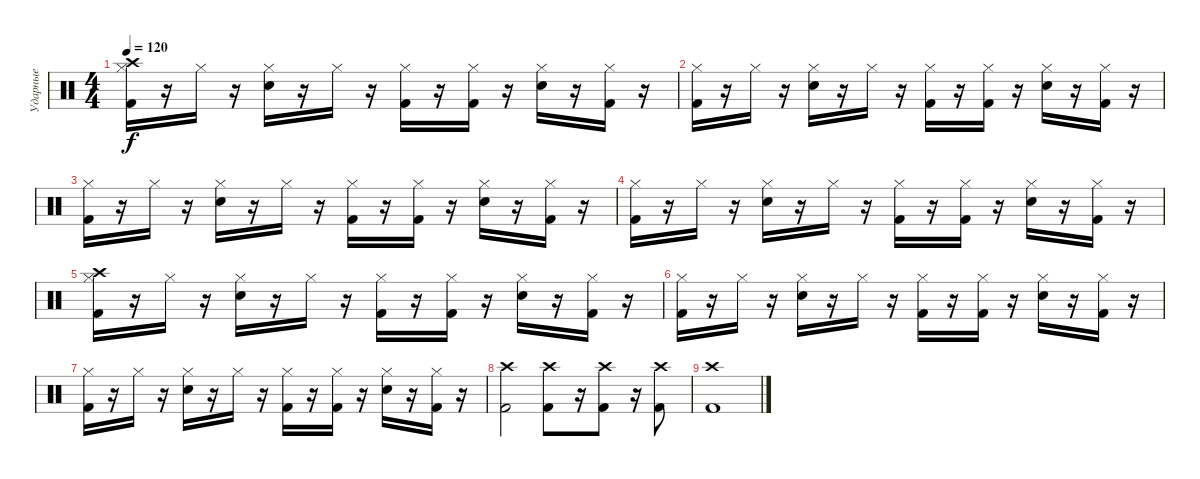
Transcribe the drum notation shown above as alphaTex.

\track ("Ударные" "Ударные") {instrument percussion}
\staff {score}
\articulation defaults
\ts (4 4)
\tempo 120
\clef neutral
\ks c
("Hi-Hat (closed)" "Kick (hit) 2" "Crash high (hit)").16{dy f} r.16 "Hi-Hat (closed)".16 r.16 ("Hi-Hat (closed)" "Snare (hit) 2").16 r.16 "Hi-Hat (closed)".16 r.16 ("Hi-Hat (closed)" "Kick (hit) 2").16 r.16 ("Hi-Hat (closed)" "Kick (hit) 2").16 r.16 ("Hi-Hat (closed)" "Snare (hit) 2").16 r.16 ("Hi-Hat (closed)" "Kick (hit) 2").16 r.16 |
("Hi-Hat (closed)" "Kick (hit) 2").16 r.16 "Hi-Hat (closed)".16 r.16 ("Hi-Hat (closed)" "Snare (hit) 2").16 r.16 "Hi-Hat (closed)".16 r.16 ("Hi-Hat (closed)" "Kick (hit) 2").16 r.16 ("Hi-Hat (closed)" "Kick (hit) 2").16 r.16 ("Hi-Hat (closed)" "Snare (hit) 2").16 r.16 ("Hi-Hat (closed)" "Kick (hit) 2").16 r.16 |
("Hi-Hat (closed)" "Kick (hit) 2").16 r.16 "Hi-Hat (closed)".16 r.16 ("Hi-Hat (closed)" "Snare (hit) 2").16 r.16 "Hi-Hat (closed)".16 r.16 ("Hi-Hat (closed)" "Kick (hit) 2").16 r.16 ("Hi-Hat (closed)" "Kick (hit) 2").16 r.16 ("Hi-Hat (closed)" "Snare (hit) 2").16 r.16 ("Hi-Hat (closed)" "Kick (hit) 2").16 r.16 |
("Hi-Hat (closed)" "Kick (hit) 2").16 r.16 "Hi-Hat (closed)".16 r.16 ("Hi-Hat (closed)" "Snare (hit) 2").16 r.16 "Hi-Hat (closed)".16 r.16 ("Hi-Hat (closed)" "Kick (hit) 2").16 r.16 ("Hi-Hat (closed)" "Kick (hit) 2").16 r.16 ("Hi-Hat (closed)" "Snare (hit) 2").16 r.16 ("Hi-Hat (closed)" "Kick (hit) 2").16 r.16 |
("Hi-Hat (closed)" "Kick (hit) 2" "Crash high (hit)").16 r.16 "Hi-Hat (closed)".16 r.16 ("Hi-Hat (closed)" "Snare (hit) 2").16 r.16 "Hi-Hat (closed)".16 r.16 ("Hi-Hat (closed)" "Kick (hit) 2").16 r.16 ("Hi-Hat (closed)" "Kick (hit) 2").16 r.16 ("Hi-Hat (closed)" "Snare (hit) 2").16 r.16 ("Hi-Hat (closed)" "Kick (hit) 2").16 r.16 |
("Hi-Hat (closed)" "Kick (hit) 2").16 r.16 "Hi-Hat (closed)".16 r.16 ("Hi-Hat (closed)" "Snare (hit) 2").16 r.16 "Hi-Hat (closed)".16 r.16 ("Hi-Hat (closed)" "Kick (hit) 2").16 r.16 ("Hi-Hat (closed)" "Kick (hit) 2").16 r.16 ("Hi-Hat (closed)" "Snare (hit) 2").16 r.16 ("Hi-Hat (closed)" "Kick (hit) 2").16 r.16 |
("Hi-Hat (closed)" "Kick (hit) 2").16 r.16 "Hi-Hat (closed)".16 r.16 ("Hi-Hat (closed)" "Snare (hit) 2").16 r.16 "Hi-Hat (closed)".16 r.16 ("Hi-Hat (closed)" "Kick (hit) 2").16 r.16 ("Hi-Hat (closed)" "Kick (hit) 2").16 r.16 ("Hi-Hat (closed)" "Snare (hit) 2").16 r.16 ("Hi-Hat (closed)" "Kick (hit) 2").16 r.16 |
("Crash high (hit)" "Kick (hit) 2").2 ("Crash high (hit)" "Kick (hit) 2").8 r.16 ("Crash high (hit)" "Kick (hit) 2").8 r.16 ("Crash high (hit)" "Kick (hit) 2").8 |
("Crash high (hit)" "Kick (hit) 2").1
